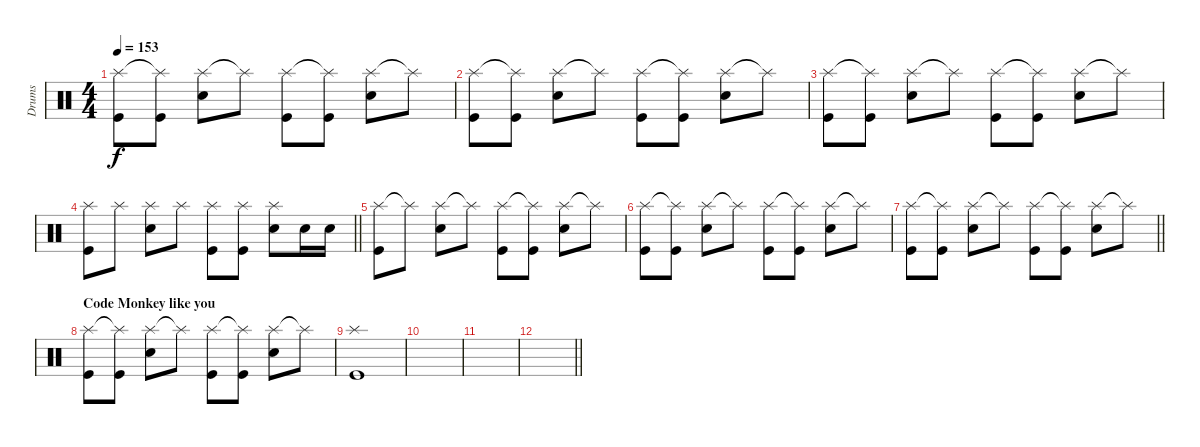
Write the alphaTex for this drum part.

\track ("Drums" "Drums") {instrument percussion}
\staff {score}
\articulation defaults
\ts (4 4)
\tempo 153
\clef neutral
\ks c
("Splash (hit)" "Kick (hit)").8{dy f} ("Splash (hit)"{t} "Kick (hit)").8 ("Splash (hit)" "Snare (hit) 2").8 "Splash (hit)"{t}.8 ("Splash (hit)" "Kick (hit)").8 ("Splash (hit)"{t} "Kick (hit)").8 ("Splash (hit)" "Snare (hit) 2").8 "Splash (hit)"{t}.8 |
("Splash (hit)" "Kick (hit)").8 ("Splash (hit)"{t} "Kick (hit)").8 ("Splash (hit)" "Snare (hit) 2").8 "Splash (hit)"{t}.8 ("Splash (hit)" "Kick (hit)").8 ("Splash (hit)"{t} "Kick (hit)").8 ("Splash (hit)" "Snare (hit) 2").8 "Splash (hit)"{t}.8 |
("Splash (hit)" "Kick (hit)").8 ("Splash (hit)"{t} "Kick (hit)").8 ("Splash (hit)" "Snare (hit) 2").8 "Splash (hit)"{t}.8 ("Splash (hit)" "Kick (hit)").8 ("Splash (hit)"{t} "Kick (hit)").8 ("Splash (hit)" "Snare (hit) 2").8 "Splash (hit)"{t}.8 |
\barLineRight lightlight
("Splash (hit)" "Kick (hit)").8 "Splash (hit)".8 ("Splash (hit)" "Snare (hit) 2").8 "Splash (hit)".8 ("Splash (hit)" "Kick (hit)").8 ("Splash (hit)" "Kick (hit)").8 ("Splash (hit)" "Snare (hit) 2").8 "Snare (hit) 2".16 "Snare (hit) 2".16 |
("Splash (hit)" "Kick (hit)").8 "Splash (hit)"{t}.8 ("Splash (hit)" "Snare (hit) 2").8 "Splash (hit)"{t}.8 ("Splash (hit)" "Kick (hit)").8 ("Splash (hit)"{t} "Kick (hit)").8 ("Splash (hit)" "Snare (hit) 2").8 "Splash (hit)"{t}.8 |
("Splash (hit)" "Kick (hit)").8 ("Splash (hit)"{t} "Kick (hit)").8 ("Splash (hit)" "Snare (hit) 2").8 "Splash (hit)"{t}.8 ("Splash (hit)" "Kick (hit)").8 ("Splash (hit)"{t} "Kick (hit)").8 ("Splash (hit)" "Snare (hit) 2").8 "Splash (hit)"{t}.8 |
\barLineRight lightlight
("Splash (hit)" "Kick (hit)").8 ("Splash (hit)"{t} "Kick (hit)").8 ("Splash (hit)" "Snare (hit) 2").8 "Splash (hit)"{t}.8 ("Splash (hit)" "Kick (hit)").8 ("Splash (hit)"{t} "Kick (hit)").8 ("Splash (hit)" "Snare (hit) 2").8 "Splash (hit)"{t}.8 |
\section ("" "Code Monkey like you")
("Splash (hit)" "Kick (hit)").8 ("Splash (hit)"{t} "Kick (hit)").8 ("Splash (hit)" "Snare (hit) 2").8 "Splash (hit)"{t}.8 ("Splash (hit)" "Kick (hit)").8 ("Splash (hit)"{t} "Kick (hit)").8 ("Splash (hit)" "Snare (hit) 2").8 "Splash (hit)"{t}.8 |
("Splash (hit)" "Kick (hit)").1 |
|
|
\barLineRight lightlight
